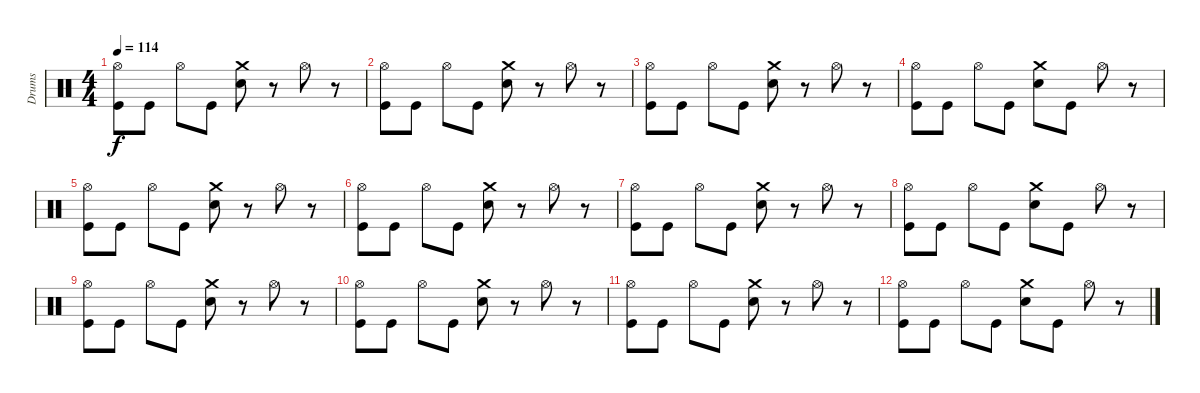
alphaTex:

\track ("Drums" "Drums") {instrument percussion}
\staff {score}
\articulation defaults
\ts (4 4)
\tempo 114
\clef neutral
\ks c
("Kick (hit)" "Hi-Hat (open)").8{dy f} "Kick (hit)".8 "Hi-Hat (open)".8 "Kick (hit)".8 ("Crash medium (hit)" "Electric Snare (hit)").8 r.8 "Hi-Hat (open)".8 r.8 |
("Kick (hit)" "Hi-Hat (open)").8 "Kick (hit)".8 "Hi-Hat (open)".8 "Kick (hit)".8 ("Crash medium (hit)" "Electric Snare (hit)").8 r.8 "Hi-Hat (open)".8 r.8 |
("Kick (hit)" "Hi-Hat (open)").8 "Kick (hit)".8 "Hi-Hat (open)".8 "Kick (hit)".8 ("Crash medium (hit)" "Electric Snare (hit)").8 r.8 "Hi-Hat (open)".8 r.8 |
("Kick (hit)" "Hi-Hat (open)").8{volume 9} "Kick (hit)".8 "Hi-Hat (open)".8 "Kick (hit)".8 ("Crash medium (hit)" "Electric Snare (hit)").8 "Kick (hit)".8 "Hi-Hat (open)".8 r.8 |
("Kick (hit)" "Hi-Hat (open)").8 "Kick (hit)".8 "Hi-Hat (open)".8 "Kick (hit)".8 ("Crash medium (hit)" "Electric Snare (hit)").8 r.8 "Hi-Hat (open)".8 r.8 |
("Kick (hit)" "Hi-Hat (open)").8 "Kick (hit)".8 "Hi-Hat (open)".8 "Kick (hit)".8 ("Crash medium (hit)" "Electric Snare (hit)").8 r.8 "Hi-Hat (open)".8 r.8 |
("Kick (hit)" "Hi-Hat (open)").8 "Kick (hit)".8 "Hi-Hat (open)".8 "Kick (hit)".8 ("Crash medium (hit)" "Electric Snare (hit)").8 r.8 "Hi-Hat (open)".8 r.8 |
("Kick (hit)" "Hi-Hat (open)").8 "Kick (hit)".8 "Hi-Hat (open)".8 "Kick (hit)".8 ("Crash medium (hit)" "Electric Snare (hit)").8 "Kick (hit)".8 "Hi-Hat (open)".8 r.8 |
("Kick (hit)" "Hi-Hat (open)").8{volume 0} "Kick (hit)".8 "Hi-Hat (open)".8 "Kick (hit)".8 ("Crash medium (hit)" "Electric Snare (hit)").8 r.8 "Hi-Hat (open)".8 r.8 |
("Kick (hit)" "Hi-Hat (open)").8 "Kick (hit)".8 "Hi-Hat (open)".8 "Kick (hit)".8 ("Crash medium (hit)" "Electric Snare (hit)").8 r.8 "Hi-Hat (open)".8 r.8 |
("Kick (hit)" "Hi-Hat (open)").8 "Kick (hit)".8 "Hi-Hat (open)".8 "Kick (hit)".8 ("Crash medium (hit)" "Electric Snare (hit)").8 r.8 "Hi-Hat (open)".8 r.8 |
("Kick (hit)" "Hi-Hat (open)").8 "Kick (hit)".8 "Hi-Hat (open)".8 "Kick (hit)".8 ("Crash medium (hit)" "Electric Snare (hit)").8 "Kick (hit)".8 "Hi-Hat (open)".8 r.8
